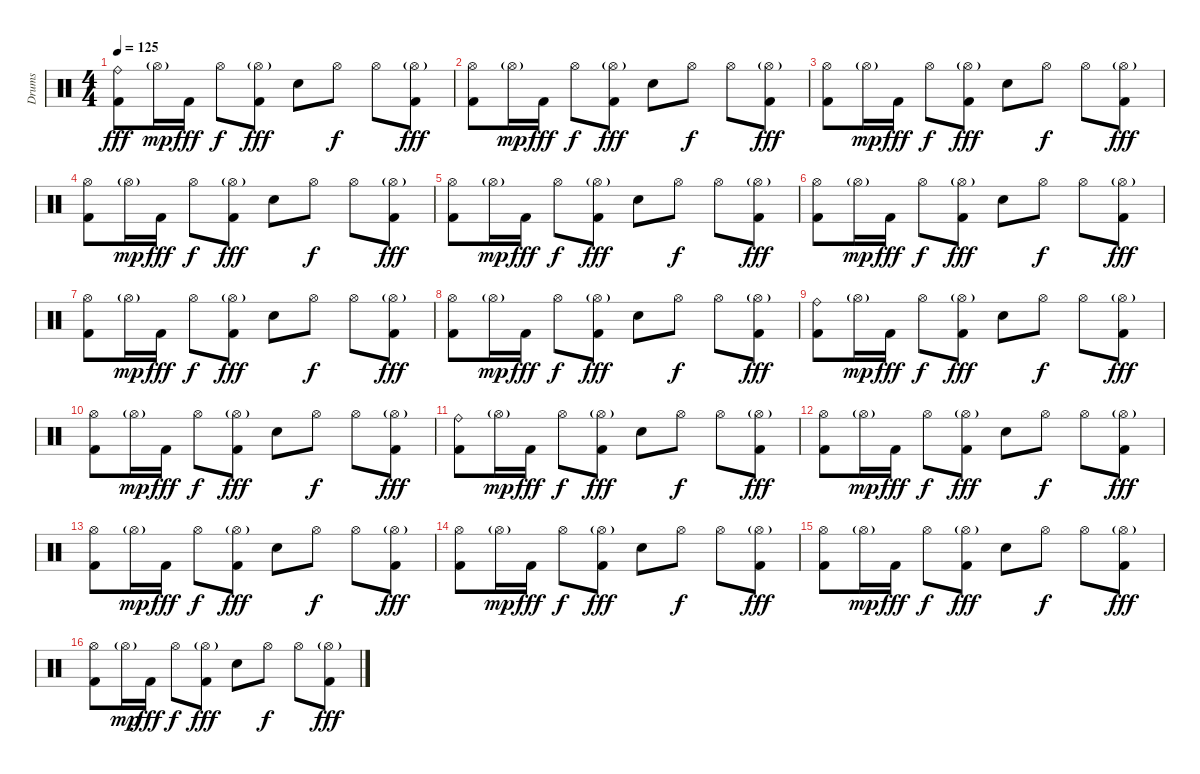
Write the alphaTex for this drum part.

\track ("Drums" "Drums") {instrument percussion}
\staff {score}
\articulation defaults
\ts (4 4)
\tempo 125
\clef neutral
\ks c
("Ride (bell)" "Kick (hit) 2").8{dy fff} "Hi-Hat (open)"{g}.16{dy mp} "Kick (hit) 2".16{dy fff} "Hi-Hat (open)".8{dy f} ("Hi-Hat (open)"{g} "Kick (hit) 2").8{dy fff} "Snare (hit) 2".8 "Hi-Hat (open)".8{dy f} "Hi-Hat (open)".8 ("Hi-Hat (open)"{g} "Kick (hit) 2").8{dy fff} |
("Hi-Hat (open)" "Kick (hit) 2").8 "Hi-Hat (open)"{g}.16{dy mp} "Kick (hit) 2".16{dy fff} "Hi-Hat (open)".8{dy f} ("Hi-Hat (open)"{g} "Kick (hit) 2").8{dy fff} "Snare (hit) 2".8 "Hi-Hat (open)".8{dy f} "Hi-Hat (open)".8 ("Hi-Hat (open)"{g} "Kick (hit) 2").8{dy fff} |
("Hi-Hat (open)" "Kick (hit) 2").8 "Hi-Hat (open)"{g}.16{dy mp} "Kick (hit) 2".16{dy fff} "Hi-Hat (open)".8{dy f} ("Hi-Hat (open)"{g} "Kick (hit) 2").8{dy fff} "Snare (hit) 2".8 "Hi-Hat (open)".8{dy f} "Hi-Hat (open)".8 ("Hi-Hat (open)"{g} "Kick (hit) 2").8{dy fff} |
("Hi-Hat (open)" "Kick (hit) 2").8 "Hi-Hat (open)"{g}.16{dy mp} "Kick (hit) 2".16{dy fff} "Hi-Hat (open)".8{dy f} ("Hi-Hat (open)"{g} "Kick (hit) 2").8{dy fff} "Snare (hit) 2".8 "Hi-Hat (open)".8{dy f} "Hi-Hat (open)".8 ("Hi-Hat (open)"{g} "Kick (hit) 2").8{dy fff} |
("Hi-Hat (open)" "Kick (hit) 2").8 "Hi-Hat (open)"{g}.16{dy mp} "Kick (hit) 2".16{dy fff} "Hi-Hat (open)".8{dy f} ("Hi-Hat (open)"{g} "Kick (hit) 2").8{dy fff} "Snare (hit) 2".8 "Hi-Hat (open)".8{dy f} "Hi-Hat (open)".8 ("Hi-Hat (open)"{g} "Kick (hit) 2").8{dy fff} |
("Hi-Hat (open)" "Kick (hit) 2").8 "Hi-Hat (open)"{g}.16{dy mp} "Kick (hit) 2".16{dy fff} "Hi-Hat (open)".8{dy f} ("Hi-Hat (open)"{g} "Kick (hit) 2").8{dy fff} "Snare (hit) 2".8 "Hi-Hat (open)".8{dy f} "Hi-Hat (open)".8 ("Hi-Hat (open)"{g} "Kick (hit) 2").8{dy fff} |
("Hi-Hat (open)" "Kick (hit) 2").8 "Hi-Hat (open)"{g}.16{dy mp} "Kick (hit) 2".16{dy fff} "Hi-Hat (open)".8{dy f} ("Hi-Hat (open)"{g} "Kick (hit) 2").8{dy fff} "Snare (hit) 2".8 "Hi-Hat (open)".8{dy f} "Hi-Hat (open)".8 ("Hi-Hat (open)"{g} "Kick (hit) 2").8{dy fff} |
("Hi-Hat (open)" "Kick (hit) 2").8 "Hi-Hat (open)"{g}.16{dy mp} "Kick (hit) 2".16{dy fff} "Hi-Hat (open)".8{dy f} ("Hi-Hat (open)"{g} "Kick (hit) 2").8{dy fff} "Snare (hit) 2".8 "Hi-Hat (open)".8{dy f} "Hi-Hat (open)".8 ("Hi-Hat (open)"{g} "Kick (hit) 2").8{dy fff} |
("Ride (bell)" "Kick (hit) 2").8 "Hi-Hat (open)"{g}.16{dy mp} "Kick (hit) 2".16{dy fff} "Hi-Hat (open)".8{dy f} ("Hi-Hat (open)"{g} "Kick (hit) 2").8{dy fff} "Snare (hit) 2".8 "Hi-Hat (open)".8{dy f} "Hi-Hat (open)".8 ("Hi-Hat (open)"{g} "Kick (hit) 2").8{dy fff} |
("Hi-Hat (open)" "Kick (hit) 2").8 "Hi-Hat (open)"{g}.16{dy mp} "Kick (hit) 2".16{dy fff} "Hi-Hat (open)".8{dy f} ("Hi-Hat (open)"{g} "Kick (hit) 2").8{dy fff} "Snare (hit) 2".8 "Hi-Hat (open)".8{dy f} "Hi-Hat (open)".8 ("Hi-Hat (open)"{g} "Kick (hit) 2").8{dy fff} |
("Ride (bell)" "Kick (hit) 2").8 "Hi-Hat (open)"{g}.16{dy mp} "Kick (hit) 2".16{dy fff} "Hi-Hat (open)".8{dy f} ("Hi-Hat (open)"{g} "Kick (hit) 2").8{dy fff} "Snare (hit) 2".8 "Hi-Hat (open)".8{dy f} "Hi-Hat (open)".8 ("Hi-Hat (open)"{g} "Kick (hit) 2").8{dy fff} |
("Hi-Hat (open)" "Kick (hit) 2").8 "Hi-Hat (open)"{g}.16{dy mp} "Kick (hit) 2".16{dy fff} "Hi-Hat (open)".8{dy f} ("Hi-Hat (open)"{g} "Kick (hit) 2").8{dy fff} "Snare (hit) 2".8 "Hi-Hat (open)".8{dy f} "Hi-Hat (open)".8 ("Hi-Hat (open)"{g} "Kick (hit) 2").8{dy fff} |
("Hi-Hat (open)" "Kick (hit) 2").8 "Hi-Hat (open)"{g}.16{dy mp} "Kick (hit) 2".16{dy fff} "Hi-Hat (open)".8{dy f} ("Hi-Hat (open)"{g} "Kick (hit) 2").8{dy fff} "Snare (hit) 2".8 "Hi-Hat (open)".8{dy f} "Hi-Hat (open)".8 ("Hi-Hat (open)"{g} "Kick (hit) 2").8{dy fff} |
("Hi-Hat (open)" "Kick (hit) 2").8 "Hi-Hat (open)"{g}.16{dy mp} "Kick (hit) 2".16{dy fff} "Hi-Hat (open)".8{dy f} ("Hi-Hat (open)"{g} "Kick (hit) 2").8{dy fff} "Snare (hit) 2".8 "Hi-Hat (open)".8{dy f} "Hi-Hat (open)".8 ("Hi-Hat (open)"{g} "Kick (hit) 2").8{dy fff} |
("Hi-Hat (open)" "Kick (hit) 2").8 "Hi-Hat (open)"{g}.16{dy mp} "Kick (hit) 2".16{dy fff} "Hi-Hat (open)".8{dy f} ("Hi-Hat (open)"{g} "Kick (hit) 2").8{dy fff} "Snare (hit) 2".8 "Hi-Hat (open)".8{dy f} "Hi-Hat (open)".8 ("Hi-Hat (open)"{g} "Kick (hit) 2").8{dy fff} |
("Hi-Hat (open)" "Kick (hit) 2").8 "Hi-Hat (open)"{g}.16{dy mp} "Kick (hit) 2".16{dy fff} "Hi-Hat (open)".8{dy f} ("Hi-Hat (open)"{g} "Kick (hit) 2").8{dy fff} "Snare (hit) 2".8 "Hi-Hat (open)".8{dy f} "Hi-Hat (open)".8 ("Hi-Hat (open)"{g} "Kick (hit) 2").8{dy fff}
